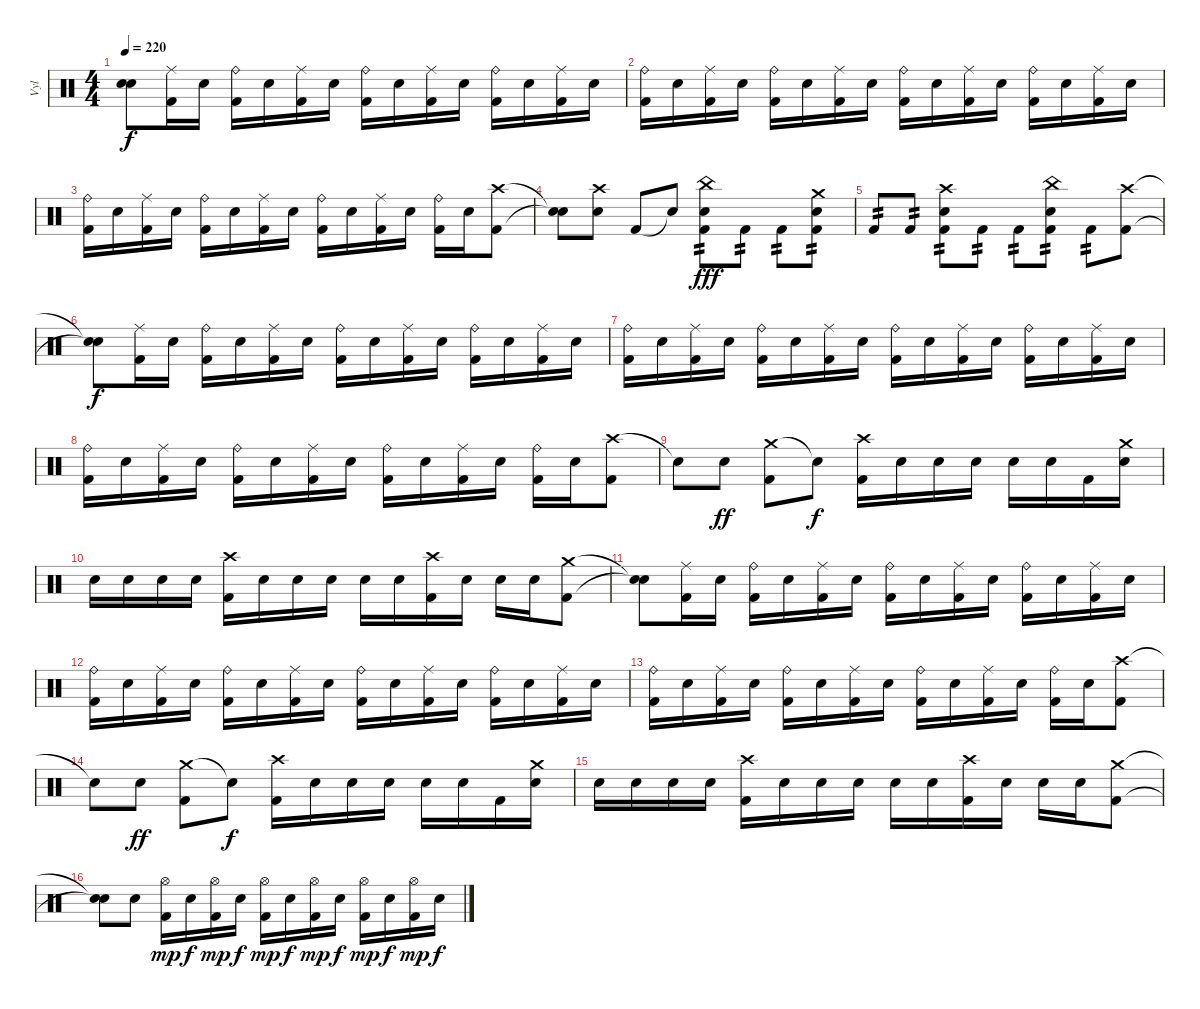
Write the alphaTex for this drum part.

\track ("Vyl" "Vyl") {instrument percussion}
\staff {score}
\articulation defaults
\ts (4 4)
\tempo 220
\clef neutral
\ks c
("Snare (hit)"{t} "Snare (hit)"{t}).8{dy f} ("Ride (middle)" "Kick (hit) 2").16 "Snare (hit) 2".16 ("Ride (bell)" "Kick (hit) 2").16 "Snare (hit) 2".16 ("Ride (middle)" "Kick (hit) 2").16 "Snare (hit) 2".16 ("Ride (bell)" "Kick (hit) 2").16 "Snare (hit) 2".16 ("Ride (middle)" "Kick (hit) 2").16 "Snare (hit) 2".16 ("Ride (bell)" "Kick (hit) 2").16 "Snare (hit) 2".16 ("Ride (middle)" "Kick (hit) 2").16 "Snare (hit) 2".16 |
("Ride (bell)" "Kick (hit) 2").16 "Snare (hit) 2".16 ("Ride (middle)" "Kick (hit) 2").16 "Snare (hit) 2".16 ("Ride (bell)" "Kick (hit) 2").16 "Snare (hit) 2".16 ("Ride (middle)" "Kick (hit) 2").16 "Snare (hit) 2".16 ("Ride (bell)" "Kick (hit) 2").16 "Snare (hit) 2".16 ("Ride (middle)" "Kick (hit) 2").16 "Snare (hit) 2".16 ("Ride (bell)" "Kick (hit) 2").16 "Snare (hit) 2".16 ("Ride (middle)" "Kick (hit) 2").16 "Snare (hit) 2".16 |
("Ride (bell)" "Kick (hit) 2").16 "Snare (hit) 2".16 ("Ride (middle)" "Kick (hit) 2").16 "Snare (hit) 2".16 ("Ride (bell)" "Kick (hit) 2").16 "Snare (hit) 2".16 ("Ride (middle)" "Kick (hit) 2").16 "Snare (hit) 2".16 ("Ride (bell)" "Kick (hit) 2").16 "Snare (hit) 2".16 ("Ride (middle)" "Kick (hit) 2").16 "Snare (hit) 2".16 ("Ride (bell)" "Kick (hit) 2").16 "Snare (hit) 2".16 ("Crash high (hit)" "Kick (hit) 2").8 |
("Snare (hit)"{t} "Snare (hit)"{t}).8 ("Crash high (hit)" "Snare (hit) 2").8 "Kick (hit) 2".8 "Snare (hit)"{t}.8 ("China (hit)" "Snare (hit) 2" "Kick (hit) 2").8{tp 2 dy fff} "Kick (hit) 2".8{tp 2} "Kick (hit) 2".8{tp 2} ("Crash medium (hit)" "Snare (hit) 2" "Kick (hit) 2").8{tp 2} |
"Kick (hit) 2".8{tp 2} "Kick (hit) 2".8{tp 2} ("Crash high (hit)" "Snare (hit) 2" "Kick (hit) 2").8{tp 2} "Kick (hit) 2".8{tp 2} "Kick (hit) 2".8{tp 2} ("China (hit)" "Snare (hit) 2" "Kick (hit) 2").8{tp 2} "Kick (hit) 2".8{tp 2} ("Crash high (hit)" "Kick (hit) 2").8 |
("Snare (hit)"{t} "Snare (hit)"{t}).8{dy f} ("Ride (middle)" "Kick (hit) 2").16 "Snare (hit) 2".16 ("Ride (bell)" "Kick (hit) 2").16 "Snare (hit) 2".16 ("Ride (middle)" "Kick (hit) 2").16 "Snare (hit) 2".16 ("Ride (bell)" "Kick (hit) 2").16 "Snare (hit) 2".16 ("Ride (middle)" "Kick (hit) 2").16 "Snare (hit) 2".16 ("Ride (bell)" "Kick (hit) 2").16 "Snare (hit) 2".16 ("Ride (middle)" "Kick (hit) 2").16 "Snare (hit) 2".16 |
("Ride (bell)" "Kick (hit) 2").16 "Snare (hit) 2".16 ("Ride (middle)" "Kick (hit) 2").16 "Snare (hit) 2".16 ("Ride (bell)" "Kick (hit) 2").16 "Snare (hit) 2".16 ("Ride (middle)" "Kick (hit) 2").16 "Snare (hit) 2".16 ("Ride (bell)" "Kick (hit) 2").16 "Snare (hit) 2".16 ("Ride (middle)" "Kick (hit) 2").16 "Snare (hit) 2".16 ("Ride (bell)" "Kick (hit) 2").16 "Snare (hit) 2".16 ("Ride (middle)" "Kick (hit) 2").16 "Snare (hit) 2".16 |
("Ride (bell)" "Kick (hit) 2").16 "Snare (hit) 2".16 ("Ride (middle)" "Kick (hit) 2").16 "Snare (hit) 2".16 ("Ride (bell)" "Kick (hit) 2").16 "Snare (hit) 2".16 ("Ride (middle)" "Kick (hit) 2").16 "Snare (hit) 2".16 ("Ride (bell)" "Kick (hit) 2").16 "Snare (hit) 2".16 ("Ride (middle)" "Kick (hit) 2").16 "Snare (hit) 2".16 ("Ride (bell)" "Kick (hit) 2").16 "Snare (hit) 2".16 ("Crash high (hit)" "Kick (hit) 2").8 |
"Snare (hit)"{t}.8 "Snare (hit) 2".8{dy ff} ("Crash medium (hit)" "Kick (hit) 2").8 "Snare (hit)"{t}.8{dy f} ("Crash high (hit)" "Kick (hit) 2").16 "Snare (hit) 2".16 "Snare (hit) 2".16 "Snare (hit) 2".16 "Snare (hit) 2".16 "Snare (hit) 2".16 "Kick (hit) 2".16 ("Crash medium (hit)" "Snare (hit) 2").16 |
"Snare (hit) 2".16 "Snare (hit) 2".16 "Snare (hit) 2".16 "Snare (hit) 2".16 ("Crash high (hit)" "Kick (hit) 2").16 "Snare (hit) 2".16 "Snare (hit) 2".16 "Snare (hit) 2".16 "Snare (hit) 2".16 "Snare (hit) 2".16 ("Crash high (hit)" "Kick (hit) 2").16 "Snare (hit) 2".16 "Snare (hit) 2".16 "Snare (hit) 2".16 ("Crash medium (hit)" "Kick (hit) 2").8 |
("Snare (hit)"{t} "Snare (hit)"{t}).8 ("Ride (middle)" "Kick (hit) 2").16 "Snare (hit) 2".16 ("Ride (bell)" "Kick (hit) 2").16 "Snare (hit) 2".16 ("Ride (middle)" "Kick (hit) 2").16 "Snare (hit) 2".16 ("Ride (bell)" "Kick (hit) 2").16 "Snare (hit) 2".16 ("Ride (middle)" "Kick (hit) 2").16 "Snare (hit) 2".16 ("Ride (bell)" "Kick (hit) 2").16 "Snare (hit) 2".16 ("Ride (middle)" "Kick (hit) 2").16 "Snare (hit) 2".16 |
("Ride (bell)" "Kick (hit) 2").16 "Snare (hit) 2".16 ("Ride (middle)" "Kick (hit) 2").16 "Snare (hit) 2".16 ("Ride (bell)" "Kick (hit) 2").16 "Snare (hit) 2".16 ("Ride (middle)" "Kick (hit) 2").16 "Snare (hit) 2".16 ("Ride (bell)" "Kick (hit) 2").16 "Snare (hit) 2".16 ("Ride (middle)" "Kick (hit) 2").16 "Snare (hit) 2".16 ("Ride (bell)" "Kick (hit) 2").16 "Snare (hit) 2".16 ("Ride (middle)" "Kick (hit) 2").16 "Snare (hit) 2".16 |
("Ride (bell)" "Kick (hit) 2").16 "Snare (hit) 2".16 ("Ride (middle)" "Kick (hit) 2").16 "Snare (hit) 2".16 ("Ride (bell)" "Kick (hit) 2").16 "Snare (hit) 2".16 ("Ride (middle)" "Kick (hit) 2").16 "Snare (hit) 2".16 ("Ride (bell)" "Kick (hit) 2").16 "Snare (hit) 2".16 ("Ride (middle)" "Kick (hit) 2").16 "Snare (hit) 2".16 ("Ride (bell)" "Kick (hit) 2").16 "Snare (hit) 2".16 ("Crash high (hit)" "Kick (hit) 2").8 |
"Snare (hit)"{t}.8 "Snare (hit) 2".8{dy ff} ("Crash medium (hit)" "Kick (hit) 2").8 "Snare (hit)"{t}.8{dy f} ("Crash high (hit)" "Kick (hit) 2").16 "Snare (hit) 2".16 "Snare (hit) 2".16 "Snare (hit) 2".16 "Snare (hit) 2".16 "Snare (hit) 2".16 "Kick (hit) 2".16 ("Crash medium (hit)" "Snare (hit) 2").16 |
"Snare (hit) 2".16 "Snare (hit) 2".16 "Snare (hit) 2".16 "Snare (hit) 2".16 ("Crash high (hit)" "Kick (hit) 2").16 "Snare (hit) 2".16 "Snare (hit) 2".16 "Snare (hit) 2".16 "Snare (hit) 2".16 "Snare (hit) 2".16 ("Crash high (hit)" "Kick (hit) 2").16 "Snare (hit) 2".16 "Snare (hit) 2".16 "Snare (hit) 2".16 ("Crash medium (hit)" "Kick (hit) 2").8 |
("Snare (hit)"{t} "Snare (hit)"{t}).8 "Snare (hit) 2".8 ("Hi-Hat (open)" "Kick (hit) 2").16{dy mp} "Snare (hit) 2".16{dy f} ("Hi-Hat (open)" "Kick (hit) 2").16{dy mp} "Snare (hit) 2".16{dy f} ("Hi-Hat (open)" "Kick (hit) 2").16{dy mp} "Snare (hit) 2".16{dy f} ("Hi-Hat (open)" "Kick (hit) 2").16{dy mp} "Snare (hit) 2".16{dy f} ("Hi-Hat (open)" "Kick (hit) 2").16{dy mp} "Snare (hit) 2".16{dy f} ("Hi-Hat (open)" "Kick (hit) 2").16{dy mp} "Snare (hit) 2".16{dy f}
